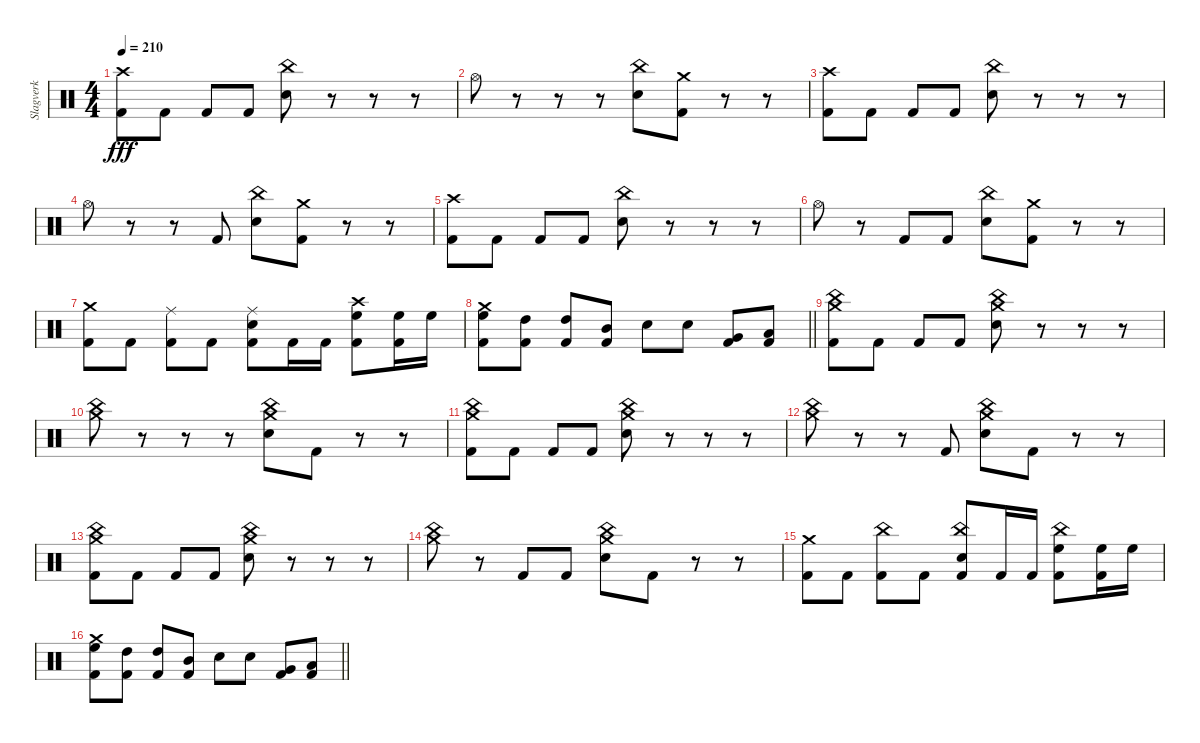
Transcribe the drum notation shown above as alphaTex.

\track ("Slagverk" "Slagverk") {instrument percussion}
\staff {score}
\articulation defaults
\ts (4 4)
\tempo 210
\clef neutral
\ks c
("Crash high (hit)" "Kick (hit) 2").8{dy fff} "Kick (hit) 2".8 "Kick (hit) 2".8 "Kick (hit) 2".8 ("China (hit)" "Electric Snare (hit)").8 r.8 r.8 r.8 |
"Hi-Hat (open)".8 r.8 r.8 r.8 ("China (hit)" "Electric Snare (hit)").8 ("Crash medium (hit)" "Kick (hit) 2").8 r.8 r.8 |
("Crash high (hit)" "Kick (hit) 2").8 "Kick (hit) 2".8 "Kick (hit) 2".8 "Kick (hit) 2".8 ("China (hit)" "Electric Snare (hit)").8 r.8 r.8 r.8 |
"Hi-Hat (open)".8 r.8 r.8 "Kick (hit) 2".8 ("China (hit)" "Electric Snare (hit)").8 ("Crash medium (hit)" "Kick (hit) 2").8 r.8 r.8 |
("Crash high (hit)" "Kick (hit) 2").8 "Kick (hit) 2".8 "Kick (hit) 2".8 "Kick (hit) 2".8 ("China (hit)" "Electric Snare (hit)").8 r.8 r.8 r.8 |
"Hi-Hat (open)".8 r.8 "Kick (hit) 2".8 "Kick (hit) 2".8 ("China (hit)" "Electric Snare (hit)").8 ("Crash medium (hit)" "Kick (hit) 2").8 r.8 r.8 |
("Crash medium (hit)" "Kick (hit) 2").8 "Kick (hit) 2".8 ("Ride (middle)" "Kick (hit) 2").8 "Kick (hit) 2".8 ("Ride (middle)" "Electric Snare (hit)" "Kick (hit) 2").8 "Kick (hit) 2".16 "Kick (hit) 2".16 ("Crash high (hit)" "High Floor Tom (hit)" "Kick (hit) 2").8 ("High Floor Tom (hit)" "Kick (hit) 2").16 "High Floor Tom (hit)".16 |
\barLineRight lightlight
("Crash medium (hit)" "High Floor Tom (hit)" "Kick (hit) 2").8 ("High Tom (hit)" "Kick (hit) 2").8 ("High Tom (hit)" "Kick (hit) 2").8 ("Mid Tom (hit)" "Kick (hit) 2").8 "Electric Snare (hit)".8 "Electric Snare (hit)".8 ("Very Low Tom (hit)" "Kick (hit) 2").8 ("Low Floor Tom (hit)" "Kick (hit) 2").8 |
("China (hit)" "Crash medium (hit)" "Kick (hit) 2").8 "Kick (hit) 2".8 "Kick (hit) 2".8 "Kick (hit) 2".8 ("China (hit)" "Crash medium (hit)" "Electric Snare (hit)").8 r.8 r.8 r.8 |
("China (hit)" "Crash medium (hit)").8 r.8 r.8 r.8 ("Crash medium (hit)" "China (hit)" "Electric Snare (hit)").8 "Kick (hit) 2".8 r.8 r.8 |
("China (hit)" "Crash medium (hit)" "Kick (hit) 2").8 "Kick (hit) 2".8 "Kick (hit) 2".8 "Kick (hit) 2".8 ("China (hit)" "Crash medium (hit)" "Electric Snare (hit)").8 r.8 r.8 r.8 |
("China (hit)" "Crash medium (hit)").8 r.8 r.8 "Kick (hit) 2".8 ("Crash medium (hit)" "China (hit)" "Electric Snare (hit)").8 "Kick (hit) 2".8 r.8 r.8 |
("China (hit)" "Crash medium (hit)" "Kick (hit) 2").8 "Kick (hit) 2".8 "Kick (hit) 2".8 "Kick (hit) 2".8 ("China (hit)" "Crash medium (hit)" "Electric Snare (hit)").8 r.8 r.8 r.8 |
("China (hit)" "Crash medium (hit)").8 r.8 "Kick (hit) 2".8 "Kick (hit) 2".8 ("Crash medium (hit)" "China (hit)" "Electric Snare (hit)").8 "Kick (hit) 2".8 r.8 r.8 |
("Crash medium (hit)" "Kick (hit) 2").8 "Kick (hit) 2".8 ("China (hit)" "Kick (hit) 2").8 "Kick (hit) 2".8 ("China (hit)" "Electric Snare (hit)" "Kick (hit) 2").8 "Kick (hit) 2".16 "Kick (hit) 2".16 ("China (hit)" "High Floor Tom (hit)" "Kick (hit) 2").8 ("High Floor Tom (hit)" "Kick (hit) 2").16 "High Floor Tom (hit)".16 |
\barLineRight lightlight
("Crash medium (hit)" "High Floor Tom (hit)" "Kick (hit) 2").8 ("High Tom (hit)" "Kick (hit) 2").8 ("High Tom (hit)" "Kick (hit) 2").8 ("Mid Tom (hit)" "Kick (hit) 2").8 "Electric Snare (hit)".8 "Electric Snare (hit)".8 ("Very Low Tom (hit)" "Kick (hit) 2").8 ("Low Floor Tom (hit)" "Kick (hit) 2").8
